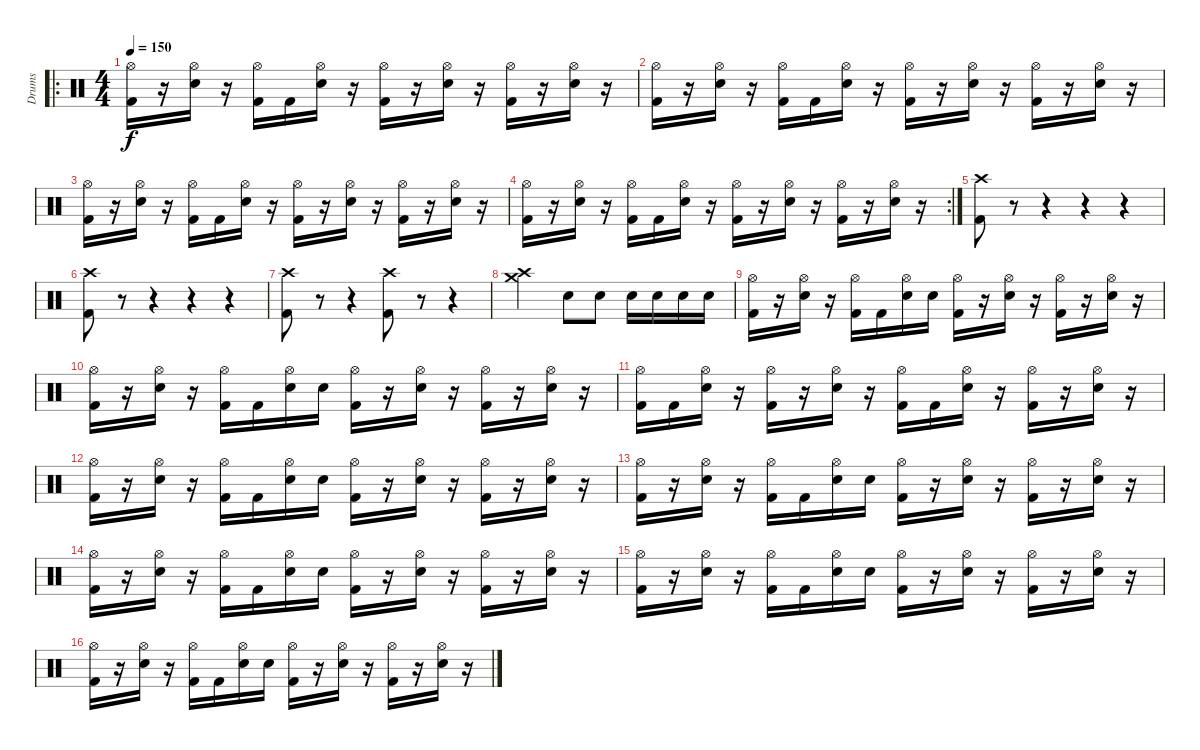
\track ("Drums" "Drums") {instrument percussion}
\staff {score}
\articulation defaults
\ro
\ts (4 4)
\tempo 150
\clef neutral
\ks c
("Hi-Hat (open)" "Kick (hit) 2").16{dy f} r.16 ("Hi-Hat (open)" "Electric Snare (hit)").16 r.16 ("Hi-Hat (open)" "Kick (hit) 2").16 "Kick (hit) 2".16 ("Hi-Hat (open)" "Electric Snare (hit)").16 r.16 ("Hi-Hat (open)" "Kick (hit) 2").16 r.16 ("Hi-Hat (open)" "Electric Snare (hit)").16 r.16 ("Hi-Hat (open)" "Kick (hit) 2").16 r.16 ("Hi-Hat (open)" "Electric Snare (hit)").16 r.16 |
("Hi-Hat (open)" "Kick (hit) 2").16 r.16 ("Hi-Hat (open)" "Electric Snare (hit)").16 r.16 ("Hi-Hat (open)" "Kick (hit) 2").16 "Kick (hit) 2".16 ("Hi-Hat (open)" "Electric Snare (hit)").16 r.16 ("Hi-Hat (open)" "Kick (hit) 2").16 r.16 ("Hi-Hat (open)" "Electric Snare (hit)").16 r.16 ("Hi-Hat (open)" "Kick (hit) 2").16 r.16 ("Hi-Hat (open)" "Electric Snare (hit)").16 r.16 |
("Hi-Hat (open)" "Kick (hit) 2").16 r.16 ("Hi-Hat (open)" "Electric Snare (hit)").16 r.16 ("Hi-Hat (open)" "Kick (hit) 2").16 "Kick (hit) 2".16 ("Hi-Hat (open)" "Electric Snare (hit)").16 r.16 ("Hi-Hat (open)" "Kick (hit) 2").16 r.16 ("Hi-Hat (open)" "Electric Snare (hit)").16 r.16 ("Hi-Hat (open)" "Kick (hit) 2").16 r.16 ("Hi-Hat (open)" "Electric Snare (hit)").16 r.16 |
\rc 2
("Hi-Hat (open)" "Kick (hit) 2").16 r.16 ("Hi-Hat (open)" "Electric Snare (hit)").16 r.16 ("Hi-Hat (open)" "Kick (hit) 2").16 "Kick (hit) 2".16 ("Hi-Hat (open)" "Electric Snare (hit)").16 r.16 ("Hi-Hat (open)" "Kick (hit) 2").16 r.16 ("Hi-Hat (open)" "Electric Snare (hit)").16 r.16 ("Hi-Hat (open)" "Kick (hit) 2").16 r.16 ("Hi-Hat (open)" "Electric Snare (hit)").16 r.16 |
("Crash high (hit)" "Kick (hit) 2").8 r.8 r.4 r.4 r.4 |
("Crash high (hit)" "Kick (hit) 2").8 r.8 r.4 r.4 r.4 |
("Crash high (hit)" "Kick (hit) 2").8 r.8 r.4 ("Crash high (hit)" "Kick (hit) 2").8 r.8 r.4 |
("Crash high (hit)" "Crash medium (hit)").2 "Electric Snare (hit)".8 "Electric Snare (hit)".8 "Electric Snare (hit)".16 "Electric Snare (hit)".16 "Electric Snare (hit)".16 "Electric Snare (hit)".16 |
("Hi-Hat (open)" "Kick (hit) 2").16 r.16 ("Hi-Hat (open)" "Electric Snare (hit)").16 r.16 ("Hi-Hat (open)" "Kick (hit) 2").16 "Kick (hit) 2".16 ("Hi-Hat (open)" "Electric Snare (hit)").16 "Electric Snare (hit)".16 ("Hi-Hat (open)" "Kick (hit) 2").16 r.16 ("Hi-Hat (open)" "Electric Snare (hit)").16 r.16 ("Hi-Hat (open)" "Kick (hit) 2").16 r.16 ("Hi-Hat (open)" "Electric Snare (hit)").16 r.16 |
("Hi-Hat (open)" "Kick (hit) 2").16 r.16 ("Hi-Hat (open)" "Electric Snare (hit)").16 r.16 ("Hi-Hat (open)" "Kick (hit) 2").16 "Kick (hit) 2".16 ("Hi-Hat (open)" "Electric Snare (hit)").16 "Electric Snare (hit)".16 ("Hi-Hat (open)" "Kick (hit) 2").16 r.16 ("Hi-Hat (open)" "Electric Snare (hit)").16 r.16 ("Hi-Hat (open)" "Kick (hit) 2").16 r.16 ("Hi-Hat (open)" "Electric Snare (hit)").16 r.16 |
("Hi-Hat (open)" "Kick (hit) 2").16 "Kick (hit) 2".16 ("Hi-Hat (open)" "Electric Snare (hit)").16 r.16 ("Hi-Hat (open)" "Kick (hit) 2").16 r.16 ("Hi-Hat (open)" "Electric Snare (hit)").16 r.16 ("Hi-Hat (open)" "Kick (hit) 2").16 "Kick (hit) 2".16 ("Hi-Hat (open)" "Electric Snare (hit)").16 r.16 ("Hi-Hat (open)" "Kick (hit) 2").16 r.16 ("Hi-Hat (open)" "Electric Snare (hit)").16 r.16 |
("Hi-Hat (open)" "Kick (hit) 2").16 r.16 ("Hi-Hat (open)" "Electric Snare (hit)").16 r.16 ("Hi-Hat (open)" "Kick (hit) 2").16 "Kick (hit) 2".16 ("Hi-Hat (open)" "Electric Snare (hit)").16 "Electric Snare (hit)".16 ("Hi-Hat (open)" "Kick (hit) 2").16 r.16 ("Hi-Hat (open)" "Electric Snare (hit)").16 r.16 ("Hi-Hat (open)" "Kick (hit) 2").16 r.16 ("Hi-Hat (open)" "Electric Snare (hit)").16 r.16 |
("Hi-Hat (open)" "Kick (hit) 2").16 r.16 ("Hi-Hat (open)" "Electric Snare (hit)").16 r.16 ("Hi-Hat (open)" "Kick (hit) 2").16 "Kick (hit) 2".16 ("Hi-Hat (open)" "Electric Snare (hit)").16 "Electric Snare (hit)".16 ("Hi-Hat (open)" "Kick (hit) 2").16 r.16 ("Hi-Hat (open)" "Electric Snare (hit)").16 r.16 ("Hi-Hat (open)" "Kick (hit) 2").16 r.16 ("Hi-Hat (open)" "Electric Snare (hit)").16 r.16 |
("Hi-Hat (open)" "Kick (hit) 2").16 r.16 ("Hi-Hat (open)" "Electric Snare (hit)").16 r.16 ("Hi-Hat (open)" "Kick (hit) 2").16 "Kick (hit) 2".16 ("Hi-Hat (open)" "Electric Snare (hit)").16 "Electric Snare (hit)".16 ("Hi-Hat (open)" "Kick (hit) 2").16 r.16 ("Hi-Hat (open)" "Electric Snare (hit)").16 r.16 ("Hi-Hat (open)" "Kick (hit) 2").16 r.16 ("Hi-Hat (open)" "Electric Snare (hit)").16 r.16 |
("Hi-Hat (open)" "Kick (hit) 2").16 r.16 ("Hi-Hat (open)" "Electric Snare (hit)").16 r.16 ("Hi-Hat (open)" "Kick (hit) 2").16 "Kick (hit) 2".16 ("Hi-Hat (open)" "Electric Snare (hit)").16 "Electric Snare (hit)".16 ("Hi-Hat (open)" "Kick (hit) 2").16 r.16 ("Hi-Hat (open)" "Electric Snare (hit)").16 r.16 ("Hi-Hat (open)" "Kick (hit) 2").16 r.16 ("Hi-Hat (open)" "Electric Snare (hit)").16 r.16 |
("Hi-Hat (open)" "Kick (hit) 2").16 r.16 ("Hi-Hat (open)" "Electric Snare (hit)").16 r.16 ("Hi-Hat (open)" "Kick (hit) 2").16 "Kick (hit) 2".16 ("Hi-Hat (open)" "Electric Snare (hit)").16 "Electric Snare (hit)".16 ("Hi-Hat (open)" "Kick (hit) 2").16 r.16 ("Hi-Hat (open)" "Electric Snare (hit)").16 r.16 ("Hi-Hat (open)" "Kick (hit) 2").16 r.16 ("Hi-Hat (open)" "Electric Snare (hit)").16 r.16
